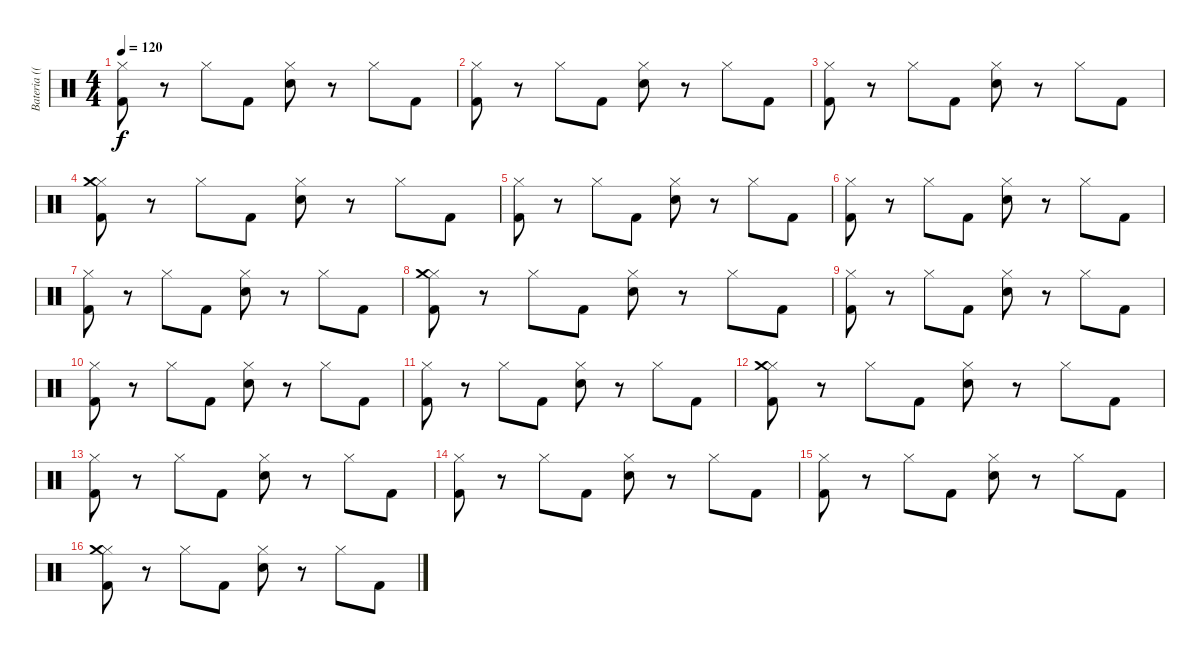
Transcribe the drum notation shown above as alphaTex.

\track ("Bateria ((Matt))" "Bateria ((") {instrument percussion}
\staff {score}
\articulation defaults
\ts (4 4)
\tempo 120
\clef neutral
\ks c
("Hi-Hat (closed)" "Kick (hit) 2").8{dy f} r.8 "Hi-Hat (closed)".8 "Kick (hit) 2".8 ("Hi-Hat (closed)" "Electric Snare (hit)").8 r.8 "Hi-Hat (closed)".8 "Kick (hit) 2".8 |
("Hi-Hat (closed)" "Kick (hit) 2").8 r.8 "Hi-Hat (closed)".8 "Kick (hit) 2".8 ("Hi-Hat (closed)" "Electric Snare (hit)").8 r.8 "Hi-Hat (closed)".8 "Kick (hit) 2".8 |
("Hi-Hat (closed)" "Kick (hit) 2").8 r.8 "Hi-Hat (closed)".8 "Kick (hit) 2".8 ("Hi-Hat (closed)" "Electric Snare (hit)").8 r.8 "Hi-Hat (closed)".8 "Kick (hit) 2".8 |
("Hi-Hat (closed)" "Crash medium (hit)" "Kick (hit) 2").8 r.8 "Hi-Hat (closed)".8 "Kick (hit) 2".8 ("Hi-Hat (closed)" "Electric Snare (hit)").8 r.8 "Hi-Hat (closed)".8 "Kick (hit) 2".8 |
("Hi-Hat (closed)" "Kick (hit) 2").8 r.8 "Hi-Hat (closed)".8 "Kick (hit) 2".8 ("Hi-Hat (closed)" "Electric Snare (hit)").8 r.8 "Hi-Hat (closed)".8 "Kick (hit) 2".8 |
("Hi-Hat (closed)" "Kick (hit) 2").8 r.8 "Hi-Hat (closed)".8 "Kick (hit) 2".8 ("Hi-Hat (closed)" "Electric Snare (hit)").8 r.8 "Hi-Hat (closed)".8 "Kick (hit) 2".8 |
("Hi-Hat (closed)" "Kick (hit) 2").8 r.8 "Hi-Hat (closed)".8 "Kick (hit) 2".8 ("Hi-Hat (closed)" "Electric Snare (hit)").8 r.8 "Hi-Hat (closed)".8 "Kick (hit) 2".8 |
("Hi-Hat (closed)" "Crash medium (hit)" "Kick (hit) 2").8 r.8 "Hi-Hat (closed)".8 "Kick (hit) 2".8 ("Hi-Hat (closed)" "Electric Snare (hit)").8 r.8 "Hi-Hat (closed)".8 "Kick (hit) 2".8 |
("Hi-Hat (closed)" "Kick (hit) 2").8 r.8 "Hi-Hat (closed)".8 "Kick (hit) 2".8 ("Hi-Hat (closed)" "Electric Snare (hit)").8 r.8 "Hi-Hat (closed)".8 "Kick (hit) 2".8 |
("Hi-Hat (closed)" "Kick (hit) 2").8 r.8 "Hi-Hat (closed)".8 "Kick (hit) 2".8 ("Hi-Hat (closed)" "Electric Snare (hit)").8 r.8 "Hi-Hat (closed)".8 "Kick (hit) 2".8 |
("Hi-Hat (closed)" "Kick (hit) 2").8 r.8 "Hi-Hat (closed)".8 "Kick (hit) 2".8 ("Hi-Hat (closed)" "Electric Snare (hit)").8 r.8 "Hi-Hat (closed)".8 "Kick (hit) 2".8 |
("Hi-Hat (closed)" "Crash medium (hit)" "Kick (hit) 2").8 r.8 "Hi-Hat (closed)".8 "Kick (hit) 2".8 ("Hi-Hat (closed)" "Electric Snare (hit)").8 r.8 "Hi-Hat (closed)".8 "Kick (hit) 2".8 |
("Hi-Hat (closed)" "Kick (hit) 2").8 r.8 "Hi-Hat (closed)".8 "Kick (hit) 2".8 ("Hi-Hat (closed)" "Electric Snare (hit)").8 r.8 "Hi-Hat (closed)".8 "Kick (hit) 2".8 |
("Hi-Hat (closed)" "Kick (hit) 2").8 r.8 "Hi-Hat (closed)".8 "Kick (hit) 2".8 ("Hi-Hat (closed)" "Electric Snare (hit)").8 r.8 "Hi-Hat (closed)".8 "Kick (hit) 2".8 |
("Hi-Hat (closed)" "Kick (hit) 2").8 r.8 "Hi-Hat (closed)".8 "Kick (hit) 2".8 ("Hi-Hat (closed)" "Electric Snare (hit)").8 r.8 "Hi-Hat (closed)".8 "Kick (hit) 2".8 |
("Hi-Hat (closed)" "Crash medium (hit)" "Kick (hit) 2").8 r.8 "Hi-Hat (closed)".8 "Kick (hit) 2".8 ("Hi-Hat (closed)" "Electric Snare (hit)").8 r.8 "Hi-Hat (closed)".8 "Kick (hit) 2".8
